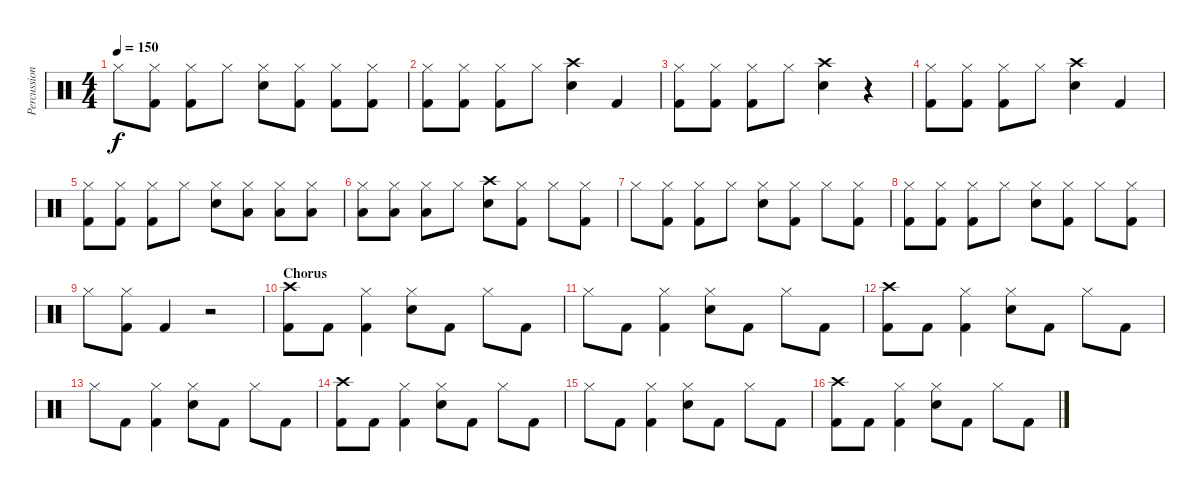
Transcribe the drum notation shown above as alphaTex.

\track ("Percussion" "Percussion") {instrument percussion}
\staff {score}
\articulation defaults
\ts (4 4)
\tempo 150
\clef neutral
\ks c "Hi-Hat (closed)".8{dy f}
("Hi-Hat (closed)" "Kick (hit) 2").8 ("Hi-Hat (closed)" "Kick (hit) 2").8 "Hi-Hat (closed)".8 ("Hi-Hat (closed)" "Electric Snare (hit)").8 ("Hi-Hat (closed)" "Kick (hit) 2").8 ("Hi-Hat (closed)" "Kick (hit) 2").8 ("Hi-Hat (closed)" "Kick (hit) 2").8 |
("Hi-Hat (closed)" "Kick (hit) 2").8 ("Hi-Hat (closed)" "Kick (hit) 2").8 ("Hi-Hat (closed)" "Kick (hit) 2").8 "Hi-Hat (closed)".8 ("Crash high (hit)" "Electric Snare (hit)").4 "Kick (hit) 2".4 |
("Hi-Hat (closed)" "Kick (hit) 2").8 ("Hi-Hat (closed)" "Kick (hit) 2").8 ("Hi-Hat (closed)" "Kick (hit) 2").8 "Hi-Hat (closed)".8 ("Crash high (hit)" "Electric Snare (hit)").4 r.4 |
("Hi-Hat (closed)" "Kick (hit) 2").8 ("Hi-Hat (closed)" "Kick (hit) 2").8 ("Hi-Hat (closed)" "Kick (hit) 2").8 "Hi-Hat (closed)".8 ("Crash high (hit)" "Electric Snare (hit)").4 "Kick (hit) 2".4 |
("Hi-Hat (closed)" "Kick (hit) 2").8 ("Hi-Hat (closed)" "Kick (hit) 2").8 ("Hi-Hat (closed)" "Kick (hit) 2").8 "Hi-Hat (closed)".8 ("Hi-Hat (closed)" "Electric Snare (hit)").8 ("Low Tom (hit)" "Hi-Hat (closed)").8 ("Low Tom (hit)" "Hi-Hat (closed)").8 ("Low Tom (hit)" "Hi-Hat (closed)").8 |
("Low Tom (hit)" "Hi-Hat (closed)").8 ("Low Tom (hit)" "Hi-Hat (closed)").8 ("Low Tom (hit)" "Hi-Hat (closed)").8 "Hi-Hat (closed)".8 ("Crash high (hit)" "Electric Snare (hit)").8 ("Hi-Hat (closed)" "Kick (hit) 2").8 "Hi-Hat (closed)".8 ("Hi-Hat (closed)" "Kick (hit) 2").8 |
"Hi-Hat (closed)".8 ("Hi-Hat (closed)" "Kick (hit) 2").8 ("Hi-Hat (closed)" "Kick (hit) 2").8 "Hi-Hat (closed)".8 ("Hi-Hat (closed)" "Electric Snare (hit)").8 ("Hi-Hat (closed)" "Kick (hit) 2").8 "Hi-Hat (closed)".8 ("Hi-Hat (closed)" "Kick (hit) 2").8 |
("Hi-Hat (closed)" "Kick (hit) 2").8 ("Hi-Hat (closed)" "Kick (hit) 2").8 ("Hi-Hat (closed)" "Kick (hit) 2").8 "Hi-Hat (closed)".8 ("Hi-Hat (closed)" "Electric Snare (hit)").8 ("Hi-Hat (closed)" "Kick (hit) 2").8 "Hi-Hat (closed)".8 ("Hi-Hat (closed)" "Kick (hit) 2").8 |
"Hi-Hat (closed)".8 ("Hi-Hat (closed)" "Kick (hit) 2").8 "Kick (hit) 2".4 r.2 |
\section ("" "Chorus")
("Crash high (hit)" "Kick (hit) 2").8 "Kick (hit) 2".8 ("Hi-Hat (closed)" "Kick (hit) 2").4 ("Hi-Hat (closed)" "Electric Snare (hit)").8 "Kick (hit) 2".8 "Hi-Hat (closed)".8 "Kick (hit) 2".8 |
"Hi-Hat (closed)".8 "Kick (hit) 2".8 ("Hi-Hat (closed)" "Kick (hit) 2").4 ("Hi-Hat (closed)" "Electric Snare (hit)").8 "Kick (hit) 2".8 "Hi-Hat (closed)".8 "Kick (hit) 2".8 |
("Crash high (hit)" "Kick (hit) 2").8 "Kick (hit) 2".8 ("Hi-Hat (closed)" "Kick (hit) 2").4 ("Hi-Hat (closed)" "Electric Snare (hit)").8 "Kick (hit) 2".8 "Hi-Hat (closed)".8 "Kick (hit) 2".8 |
"Hi-Hat (closed)".8 "Kick (hit) 2".8 ("Hi-Hat (closed)" "Kick (hit) 2").4 ("Hi-Hat (closed)" "Electric Snare (hit)").8 "Kick (hit) 2".8 "Hi-Hat (closed)".8 "Kick (hit) 2".8 |
("Crash high (hit)" "Kick (hit) 2").8 "Kick (hit) 2".8 ("Hi-Hat (closed)" "Kick (hit) 2").4 ("Hi-Hat (closed)" "Electric Snare (hit)").8 "Kick (hit) 2".8 "Hi-Hat (closed)".8 "Kick (hit) 2".8 |
"Hi-Hat (closed)".8 "Kick (hit) 2".8 ("Hi-Hat (closed)" "Kick (hit) 2").4 ("Hi-Hat (closed)" "Electric Snare (hit)").8 "Kick (hit) 2".8 "Hi-Hat (closed)".8 "Kick (hit) 2".8 |
("Crash high (hit)" "Kick (hit) 2").8 "Kick (hit) 2".8 ("Hi-Hat (closed)" "Kick (hit) 2").4 ("Hi-Hat (closed)" "Electric Snare (hit)").8 "Kick (hit) 2".8 "Hi-Hat (closed)".8 "Kick (hit) 2".8
